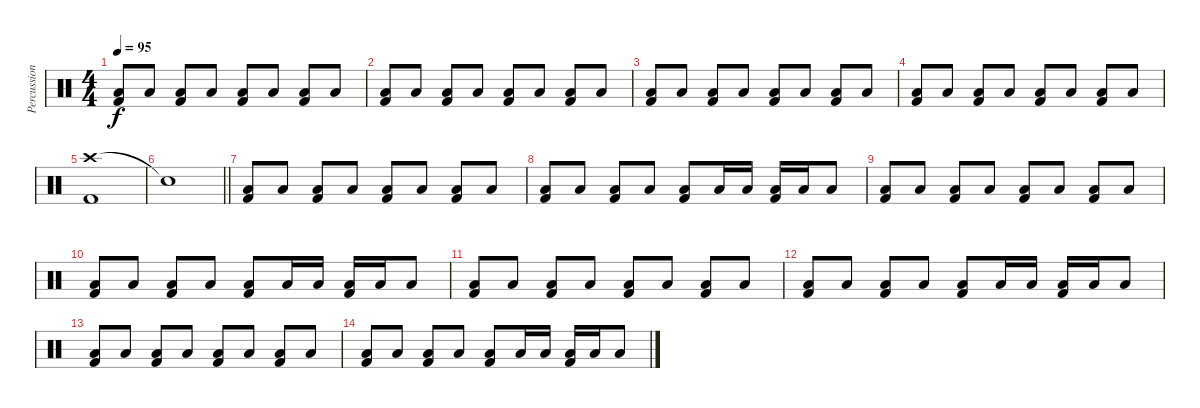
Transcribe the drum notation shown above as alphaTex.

\track ("Percussion" "Percussion") {instrument percussion}
\staff {score}
\articulation defaults
\ts (4 4)
\tempo 95
\clef neutral
\ks c
("Low Floor Tom (hit)" "Kick (hit) 2").8{dy f} "Low Floor Tom (hit)".8 ("Low Floor Tom (hit)" "Kick (hit) 2").8 "Low Floor Tom (hit)".8 ("Low Floor Tom (hit)" "Kick (hit) 2").8 "Low Floor Tom (hit)".8 ("Low Floor Tom (hit)" "Kick (hit) 2").8 "Low Floor Tom (hit)".8 |
("Low Floor Tom (hit)" "Kick (hit) 2").8 "Low Floor Tom (hit)".8 ("Low Floor Tom (hit)" "Kick (hit) 2").8 "Low Floor Tom (hit)".8 ("Low Floor Tom (hit)" "Kick (hit) 2").8 "Low Floor Tom (hit)".8 ("Low Floor Tom (hit)" "Kick (hit) 2").8 "Low Floor Tom (hit)".8 |
("Low Floor Tom (hit)" "Kick (hit) 2").8 "Low Floor Tom (hit)".8 ("Low Floor Tom (hit)" "Kick (hit) 2").8 "Low Floor Tom (hit)".8 ("Low Floor Tom (hit)" "Kick (hit) 2").8 "Low Floor Tom (hit)".8 ("Low Floor Tom (hit)" "Kick (hit) 2").8 "Low Floor Tom (hit)".8 |
("Low Floor Tom (hit)" "Kick (hit) 2").8 "Low Floor Tom (hit)".8 ("Low Floor Tom (hit)" "Kick (hit) 2").8 "Low Floor Tom (hit)".8 ("Low Floor Tom (hit)" "Kick (hit) 2").8 "Low Floor Tom (hit)".8 ("Low Floor Tom (hit)" "Kick (hit) 2").8 "Low Floor Tom (hit)".8 |
("Crash high (hit)" "Kick (hit) 2").1 |
\barLineRight lightlight "Snare (hit)"{t}.1
|
("Low Floor Tom (hit)" "Kick (hit) 2").8 "Low Floor Tom (hit)".8 ("Low Floor Tom (hit)" "Kick (hit) 2").8 "Low Floor Tom (hit)".8 ("Low Floor Tom (hit)" "Kick (hit) 2").8 "Low Floor Tom (hit)".8 ("Low Floor Tom (hit)" "Kick (hit) 2").8 "Low Floor Tom (hit)".8 |
("Low Floor Tom (hit)" "Kick (hit) 2").8 "Low Floor Tom (hit)".8 ("Low Floor Tom (hit)" "Kick (hit) 2").8 "Low Floor Tom (hit)".8 ("Low Floor Tom (hit)" "Kick (hit) 2").8 "Low Floor Tom (hit)".16 "Low Floor Tom (hit)".16 ("Low Floor Tom (hit)" "Kick (hit) 2").16 "Low Floor Tom (hit)".16 "Low Floor Tom (hit)".8 |
("Low Floor Tom (hit)" "Kick (hit) 2").8 "Low Floor Tom (hit)".8 ("Low Floor Tom (hit)" "Kick (hit) 2").8 "Low Floor Tom (hit)".8 ("Low Floor Tom (hit)" "Kick (hit) 2").8 "Low Floor Tom (hit)".8 ("Low Floor Tom (hit)" "Kick (hit) 2").8 "Low Floor Tom (hit)".8 |
("Low Floor Tom (hit)" "Kick (hit) 2").8 "Low Floor Tom (hit)".8 ("Low Floor Tom (hit)" "Kick (hit) 2").8 "Low Floor Tom (hit)".8 ("Low Floor Tom (hit)" "Kick (hit) 2").8 "Low Floor Tom (hit)".16 "Low Floor Tom (hit)".16 ("Low Floor Tom (hit)" "Kick (hit) 2").16 "Low Floor Tom (hit)".16 "Low Floor Tom (hit)".8 |
("Low Floor Tom (hit)" "Kick (hit) 2").8 "Low Floor Tom (hit)".8 ("Low Floor Tom (hit)" "Kick (hit) 2").8 "Low Floor Tom (hit)".8 ("Low Floor Tom (hit)" "Kick (hit) 2").8 "Low Floor Tom (hit)".8 ("Low Floor Tom (hit)" "Kick (hit) 2").8 "Low Floor Tom (hit)".8 |
("Low Floor Tom (hit)" "Kick (hit) 2").8 "Low Floor Tom (hit)".8 ("Low Floor Tom (hit)" "Kick (hit) 2").8 "Low Floor Tom (hit)".8 ("Low Floor Tom (hit)" "Kick (hit) 2").8 "Low Floor Tom (hit)".16 "Low Floor Tom (hit)".16 ("Low Floor Tom (hit)" "Kick (hit) 2").16 "Low Floor Tom (hit)".16 "Low Floor Tom (hit)".8 |
("Low Floor Tom (hit)" "Kick (hit) 2").8 "Low Floor Tom (hit)".8 ("Low Floor Tom (hit)" "Kick (hit) 2").8 "Low Floor Tom (hit)".8 ("Low Floor Tom (hit)" "Kick (hit) 2").8 "Low Floor Tom (hit)".8 ("Low Floor Tom (hit)" "Kick (hit) 2").8 "Low Floor Tom (hit)".8 |
("Low Floor Tom (hit)" "Kick (hit) 2").8 "Low Floor Tom (hit)".8 ("Low Floor Tom (hit)" "Kick (hit) 2").8 "Low Floor Tom (hit)".8 ("Low Floor Tom (hit)" "Kick (hit) 2").8 "Low Floor Tom (hit)".16 "Low Floor Tom (hit)".16 ("Low Floor Tom (hit)" "Kick (hit) 2").16 "Low Floor Tom (hit)".16 "Low Floor Tom (hit)".8
